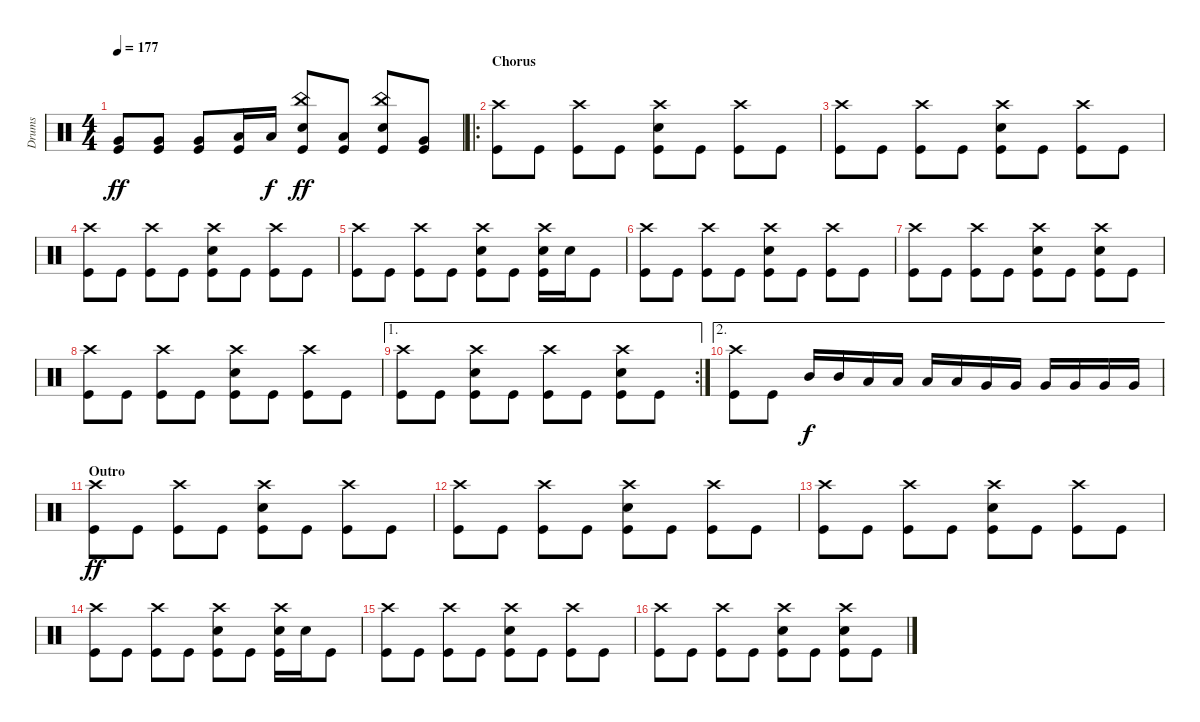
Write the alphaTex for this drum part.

\track ("Drums" "Drums") {instrument percussion}
\staff {score}
\articulation defaults
\ts (4 4)
\tempo 177
\clef neutral
\ks c
("Very Low Tom (hit)" "Kick (hit)").8{dy ff} ("Very Low Tom (hit)" "Kick (hit)").8 ("Very Low Tom (hit)" "Kick (hit)").8 ("Low Tom (hit)" "Kick (hit)").16 "Low Tom (hit)".16{dy f} ("China (hit)" "Electric Snare (hit)" "Kick (hit)").8{dy ff} ("Low Tom (hit)" "Kick (hit)").8 ("China (hit)" "Electric Snare (hit)" "Kick (hit)").8 ("Very Low Tom (hit)" "Kick (hit)").8 |
\ro
\section ("" "Chorus")
("Crash high (hit)" "Kick (hit)").8 "Kick (hit)".8 ("Crash high (hit)" "Kick (hit)").8 "Kick (hit)".8 ("Crash high (hit)" "Electric Snare (hit)" "Kick (hit)").8 "Kick (hit)".8 ("Crash high (hit)" "Kick (hit)").8 "Kick (hit)".8 |
("Crash high (hit)" "Kick (hit)").8 "Kick (hit)".8 ("Crash high (hit)" "Kick (hit)").8 "Kick (hit)".8 ("Crash high (hit)" "Electric Snare (hit)" "Kick (hit)").8 "Kick (hit)".8 ("Crash high (hit)" "Kick (hit)").8 "Kick (hit)".8 |
("Crash high (hit)" "Kick (hit)").8 "Kick (hit)".8 ("Crash high (hit)" "Kick (hit)").8 "Kick (hit)".8 ("Crash high (hit)" "Electric Snare (hit)" "Kick (hit)").8 "Kick (hit)".8 ("Crash high (hit)" "Kick (hit)").8 "Kick (hit)".8 |
("Crash high (hit)" "Kick (hit)").8 "Kick (hit)".8 ("Crash high (hit)" "Kick (hit)").8 "Kick (hit)".8 ("Crash high (hit)" "Electric Snare (hit)" "Kick (hit)").8 "Kick (hit)".8 ("Crash high (hit)" "Electric Snare (hit)" "Kick (hit)").16 "Electric Snare (hit)".16 "Kick (hit)".8 |
("Crash high (hit)" "Kick (hit)").8 "Kick (hit)".8 ("Crash high (hit)" "Kick (hit)").8 "Kick (hit)".8 ("Crash high (hit)" "Electric Snare (hit)" "Kick (hit)").8 "Kick (hit)".8 ("Crash high (hit)" "Kick (hit)").8 "Kick (hit)".8 |
("Crash high (hit)" "Kick (hit)").8 "Kick (hit)".8 ("Crash high (hit)" "Kick (hit)").8 "Kick (hit)".8 ("Crash high (hit)" "Electric Snare (hit)" "Kick (hit)").8 "Kick (hit)".8 ("Crash high (hit)" "Electric Snare (hit)" "Kick (hit)").8 "Kick (hit)".8 |
("Crash high (hit)" "Kick (hit)").8 "Kick (hit)".8 ("Crash high (hit)" "Kick (hit)").8 "Kick (hit)".8 ("Crash high (hit)" "Electric Snare (hit)" "Kick (hit)").8 "Kick (hit)".8 ("Crash high (hit)" "Kick (hit)").8 "Kick (hit)".8 |
\ae 1
\rc 2
("Crash high (hit)" "Kick (hit)").8 "Kick (hit)".8 ("Crash high (hit)" "Electric Snare (hit)" "Kick (hit)").8 "Kick (hit)".8 ("Crash high (hit)" "Kick (hit)").8 "Kick (hit)".8 ("Crash high (hit)" "Electric Snare (hit)" "Kick (hit)").8 "Kick (hit)".8 |
\ae 2
("Crash high (hit)" "Kick (hit)").8 "Kick (hit)".8 "Mid Tom (hit)".16{dy f} "Mid Tom (hit)".16 "Low Tom (hit)".16 "Low Tom (hit)".16 "Low Tom (hit)".16 "Low Tom (hit)".16 "Very Low Tom (hit)".16 "Very Low Tom (hit)".16 "Very Low Tom (hit)".16 "Very Low Tom (hit)".16 "Very Low Tom (hit)".16 "Very Low Tom (hit)".16 |
\section ("" "Outro")
("Crash high (hit)" "Kick (hit)").8{dy ff} "Kick (hit)".8 ("Crash high (hit)" "Kick (hit)").8 "Kick (hit)".8 ("Crash high (hit)" "Electric Snare (hit)" "Kick (hit)").8 "Kick (hit)".8 ("Crash high (hit)" "Kick (hit)").8 "Kick (hit)".8 |
("Crash high (hit)" "Kick (hit)").8 "Kick (hit)".8 ("Crash high (hit)" "Kick (hit)").8 "Kick (hit)".8 ("Crash high (hit)" "Electric Snare (hit)" "Kick (hit)").8 "Kick (hit)".8 ("Crash high (hit)" "Kick (hit)").8 "Kick (hit)".8 |
("Crash high (hit)" "Kick (hit)").8 "Kick (hit)".8 ("Crash high (hit)" "Kick (hit)").8 "Kick (hit)".8 ("Crash high (hit)" "Electric Snare (hit)" "Kick (hit)").8 "Kick (hit)".8 ("Crash high (hit)" "Kick (hit)").8 "Kick (hit)".8 |
("Crash high (hit)" "Kick (hit)").8 "Kick (hit)".8 ("Crash high (hit)" "Kick (hit)").8 "Kick (hit)".8 ("Crash high (hit)" "Electric Snare (hit)" "Kick (hit)").8 "Kick (hit)".8 ("Crash high (hit)" "Electric Snare (hit)" "Kick (hit)").16 "Electric Snare (hit)".16 "Kick (hit)".8 |
("Crash high (hit)" "Kick (hit)").8 "Kick (hit)".8 ("Crash high (hit)" "Kick (hit)").8 "Kick (hit)".8 ("Crash high (hit)" "Electric Snare (hit)" "Kick (hit)").8 "Kick (hit)".8 ("Crash high (hit)" "Kick (hit)").8 "Kick (hit)".8 |
("Crash high (hit)" "Kick (hit)").8 "Kick (hit)".8 ("Crash high (hit)" "Kick (hit)").8 "Kick (hit)".8 ("Crash high (hit)" "Electric Snare (hit)" "Kick (hit)").8 "Kick (hit)".8 ("Crash high (hit)" "Electric Snare (hit)" "Kick (hit)").8 "Kick (hit)".8
